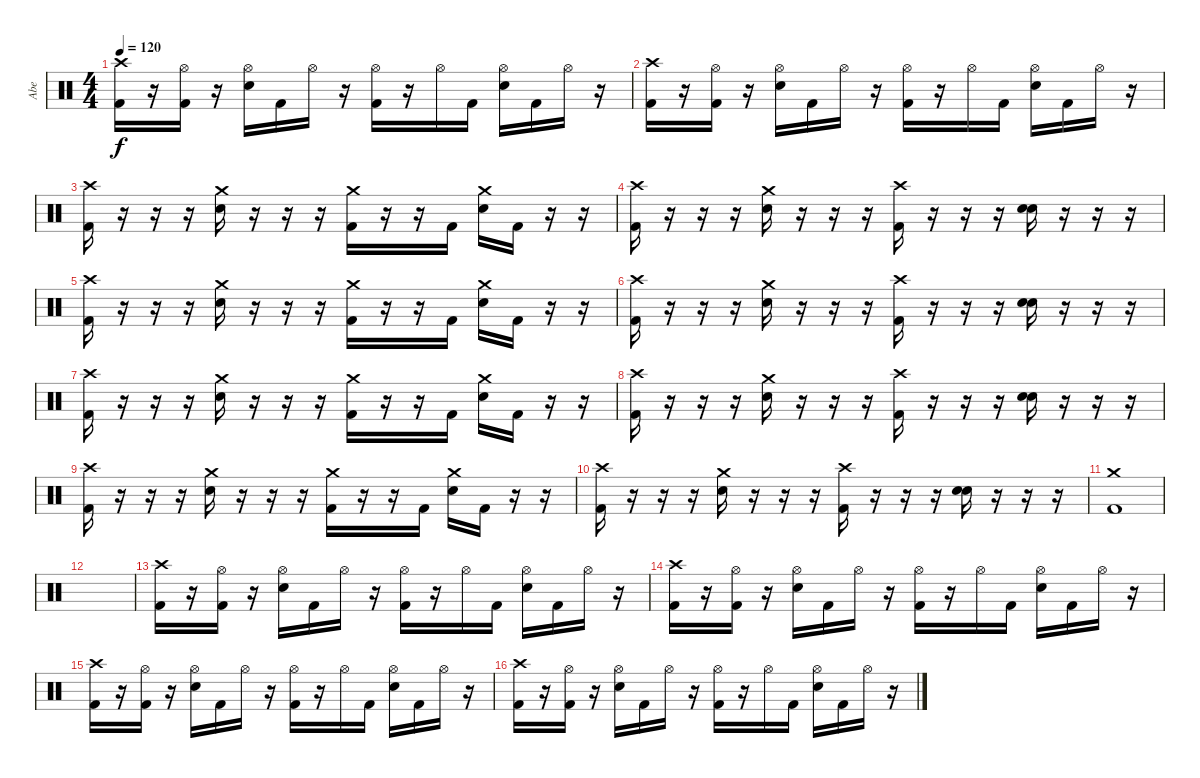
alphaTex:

\track ("Abe" "Abe") {instrument percussion}
\staff {score}
\articulation defaults
\ts (4 4)
\tempo 120
\clef neutral
\ks c
("Crash high (hit)" "Kick (hit) 2").16{dy f} r.16 ("Hi-Hat (open)" "Kick (hit) 2").16 r.16 ("Hi-Hat (open)" "Electric Snare (hit)").16 "Kick (hit) 2".16 "Hi-Hat (open)".16 r.16 ("Hi-Hat (open)" "Kick (hit) 2").16 r.16 "Hi-Hat (open)".16 "Kick (hit) 2".16 ("Hi-Hat (open)" "Electric Snare (hit)").16 "Kick (hit) 2".16 "Hi-Hat (open)".16 r.16 |
("Crash high (hit)" "Kick (hit) 2").16 r.16 ("Hi-Hat (open)" "Kick (hit) 2").16 r.16 ("Hi-Hat (open)" "Electric Snare (hit)").16 "Kick (hit) 2".16 "Hi-Hat (open)".16 r.16 ("Hi-Hat (open)" "Kick (hit) 2").16 r.16 "Hi-Hat (open)".16 "Kick (hit) 2".16 ("Hi-Hat (open)" "Electric Snare (hit)").16 "Kick (hit) 2".16 "Hi-Hat (open)".16 r.16 |
("Crash high (hit)" "Kick (hit) 2").16 r.16 r.16 r.16 ("Crash medium (hit)" "Electric Snare (hit)").16 r.16 r.16 r.16 ("Crash medium (hit)" "Kick (hit) 2").16 r.16 r.16 "Kick (hit) 2".16 ("Crash medium (hit)" "Electric Snare (hit)").16 "Kick (hit) 2".16 r.16 r.16 |
("Crash high (hit)" "Kick (hit) 2").16 r.16 r.16 r.16 ("Crash medium (hit)" "Electric Snare (hit)").16 r.16 r.16 r.16 ("Crash high (hit)" "Kick (hit) 2").16 r.16 r.16 r.16 ("Electric Snare (hit)" "Electric Snare (hit)").16 r.16 r.16 r.16 |
("Crash high (hit)" "Kick (hit) 2").16 r.16 r.16 r.16 ("Crash medium (hit)" "Electric Snare (hit)").16 r.16 r.16 r.16 ("Crash medium (hit)" "Kick (hit) 2").16 r.16 r.16 "Kick (hit) 2".16 ("Crash medium (hit)" "Electric Snare (hit)").16 "Kick (hit) 2".16 r.16 r.16 |
("Crash high (hit)" "Kick (hit) 2").16 r.16 r.16 r.16 ("Crash medium (hit)" "Electric Snare (hit)").16 r.16 r.16 r.16 ("Crash high (hit)" "Kick (hit) 2").16 r.16 r.16 r.16 ("Electric Snare (hit)" "Electric Snare (hit)").16 r.16 r.16 r.16 |
("Crash high (hit)" "Kick (hit) 2").16 r.16 r.16 r.16 ("Crash medium (hit)" "Electric Snare (hit)").16 r.16 r.16 r.16 ("Crash medium (hit)" "Kick (hit) 2").16 r.16 r.16 "Kick (hit) 2".16 ("Crash medium (hit)" "Electric Snare (hit)").16 "Kick (hit) 2".16 r.16 r.16 |
("Crash high (hit)" "Kick (hit) 2").16 r.16 r.16 r.16 ("Crash medium (hit)" "Electric Snare (hit)").16 r.16 r.16 r.16 ("Crash high (hit)" "Kick (hit) 2").16 r.16 r.16 r.16 ("Electric Snare (hit)" "Electric Snare (hit)").16 r.16 r.16 r.16 |
("Crash high (hit)" "Kick (hit) 2").16 r.16 r.16 r.16 ("Crash medium (hit)" "Electric Snare (hit)").16 r.16 r.16 r.16 ("Crash medium (hit)" "Kick (hit) 2").16 r.16 r.16 "Kick (hit) 2".16 ("Crash medium (hit)" "Electric Snare (hit)").16 "Kick (hit) 2".16 r.16 r.16 |
("Crash high (hit)" "Kick (hit) 2").16 r.16 r.16 r.16 ("Crash medium (hit)" "Electric Snare (hit)").16 r.16 r.16 r.16 ("Crash high (hit)" "Kick (hit) 2").16 r.16 r.16 r.16 ("Electric Snare (hit)" "Electric Snare (hit)").16 r.16 r.16 r.16 |
("Crash medium (hit)" "Kick (hit) 2").1 |
|
("Crash high (hit)" "Kick (hit) 2").16 r.16 ("Hi-Hat (open)" "Kick (hit) 2").16 r.16 ("Hi-Hat (open)" "Electric Snare (hit)").16 "Kick (hit) 2".16 "Hi-Hat (open)".16 r.16 ("Hi-Hat (open)" "Kick (hit) 2").16 r.16 "Hi-Hat (open)".16 "Kick (hit) 2".16 ("Hi-Hat (open)" "Electric Snare (hit)").16 "Kick (hit) 2".16 "Hi-Hat (open)".16 r.16 |
("Crash high (hit)" "Kick (hit) 2").16 r.16 ("Hi-Hat (open)" "Kick (hit) 2").16 r.16 ("Hi-Hat (open)" "Electric Snare (hit)").16 "Kick (hit) 2".16 "Hi-Hat (open)".16 r.16 ("Hi-Hat (open)" "Kick (hit) 2").16 r.16 "Hi-Hat (open)".16 "Kick (hit) 2".16 ("Hi-Hat (open)" "Electric Snare (hit)").16 "Kick (hit) 2".16 "Hi-Hat (open)".16 r.16 |
("Crash high (hit)" "Kick (hit) 2").16 r.16 ("Hi-Hat (open)" "Kick (hit) 2").16 r.16 ("Hi-Hat (open)" "Electric Snare (hit)").16 "Kick (hit) 2".16 "Hi-Hat (open)".16 r.16 ("Hi-Hat (open)" "Kick (hit) 2").16 r.16 "Hi-Hat (open)".16 "Kick (hit) 2".16 ("Hi-Hat (open)" "Electric Snare (hit)").16 "Kick (hit) 2".16 "Hi-Hat (open)".16 r.16 |
("Crash high (hit)" "Kick (hit) 2").16 r.16 ("Hi-Hat (open)" "Kick (hit) 2").16 r.16 ("Hi-Hat (open)" "Electric Snare (hit)").16 "Kick (hit) 2".16 "Hi-Hat (open)".16 r.16 ("Hi-Hat (open)" "Kick (hit) 2").16 r.16 "Hi-Hat (open)".16 "Kick (hit) 2".16 ("Hi-Hat (open)" "Electric Snare (hit)").16 "Kick (hit) 2".16 "Hi-Hat (open)".16 r.16
